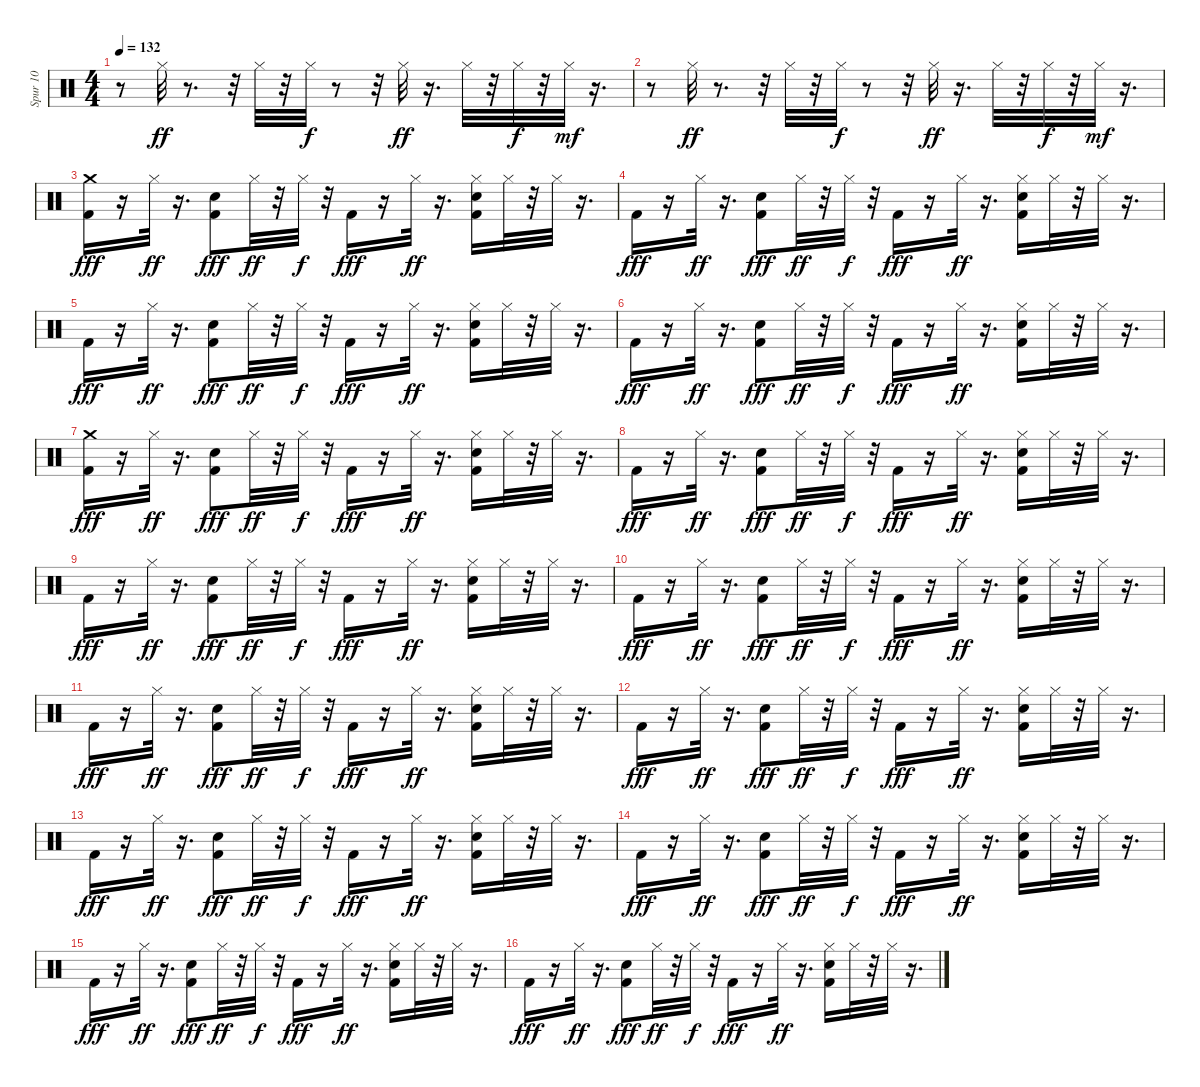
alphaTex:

\track ("Spur 10" "Spur 10") {instrument percussion}
\staff {score}
\articulation defaults
\ts (4 4)
\tempo 132
\clef neutral
\ks c
r.8{dy mf} "Hi-Hat (closed)".32{dy ff} r.8{d} r.32 "Hi-Hat (closed)".32 r.32 "Hi-Hat (closed)".32{dy f} r.8 r.32 "Hi-Hat (closed)".32{dy ff} r.16{d} "Hi-Hat (closed)".32 r.32 "Hi-Hat (closed)".32{dy f} r.32 "Hi-Hat (closed)".32{dy mf} r.16{d} |
r.8 "Hi-Hat (closed)".32{dy ff} r.8{d} r.32 "Hi-Hat (closed)".32 r.32 "Hi-Hat (closed)".32{dy f} r.8 r.32 "Hi-Hat (closed)".32{dy ff} r.16{d} "Hi-Hat (closed)".32 r.32 "Hi-Hat (closed)".32{dy f} r.32 "Hi-Hat (closed)".32{dy mf} r.16{d} |
("Crash medium (hit)" "Kick (hit) 2").16{dy fff} r.16 "Hi-Hat (closed)".32{dy ff} r.16{d} ("Snare (hit) 2" "Kick (hit) 2").8{dy fff} "Hi-Hat (closed)".32{dy ff} r.32 "Hi-Hat (closed)".32{dy f} r.32 "Kick (hit) 2".16{dy fff} r.16 "Hi-Hat (closed)".32{dy ff} r.16{d} ("Snare (hit) 2" "Kick (hit) 2" "Hi-Hat (closed)").16 "Hi-Hat (closed)".32 r.32 "Hi-Hat (closed)".32 r.16{d} |
"Kick (hit) 2".16{dy fff} r.16 "Hi-Hat (closed)".32{dy ff} r.16{d} ("Snare (hit) 2" "Kick (hit) 2").8{dy fff} "Hi-Hat (closed)".32{dy ff} r.32 "Hi-Hat (closed)".32{dy f} r.32 "Kick (hit) 2".16{dy fff} r.16 "Hi-Hat (closed)".32{dy ff} r.16{d} ("Snare (hit) 2" "Kick (hit) 2" "Hi-Hat (closed)").16 "Hi-Hat (closed)".32 r.32 "Hi-Hat (closed)".32 r.16{d} |
"Kick (hit) 2".16{dy fff} r.16 "Hi-Hat (closed)".32{dy ff} r.16{d} ("Snare (hit) 2" "Kick (hit) 2").8{dy fff} "Hi-Hat (closed)".32{dy ff} r.32 "Hi-Hat (closed)".32{dy f} r.32 "Kick (hit) 2".16{dy fff} r.16 "Hi-Hat (closed)".32{dy ff} r.16{d} ("Snare (hit) 2" "Kick (hit) 2" "Hi-Hat (closed)").16 "Hi-Hat (closed)".32 r.32 "Hi-Hat (closed)".32 r.16{d} |
"Kick (hit) 2".16{dy fff} r.16 "Hi-Hat (closed)".32{dy ff} r.16{d} ("Snare (hit) 2" "Kick (hit) 2").8{dy fff} "Hi-Hat (closed)".32{dy ff} r.32 "Hi-Hat (closed)".32{dy f} r.32 "Kick (hit) 2".16{dy fff} r.16 "Hi-Hat (closed)".32{dy ff} r.16{d} ("Snare (hit) 2" "Kick (hit) 2" "Hi-Hat (closed)").16 "Hi-Hat (closed)".32 r.32 "Hi-Hat (closed)".32 r.16{d} |
("Crash medium (hit)" "Kick (hit) 2").16{dy fff} r.16 "Hi-Hat (closed)".32{dy ff} r.16{d} ("Snare (hit) 2" "Kick (hit) 2").8{dy fff} "Hi-Hat (closed)".32{dy ff} r.32 "Hi-Hat (closed)".32{dy f} r.32 "Kick (hit) 2".16{dy fff} r.16 "Hi-Hat (closed)".32{dy ff} r.16{d} ("Snare (hit) 2" "Kick (hit) 2" "Hi-Hat (closed)").16 "Hi-Hat (closed)".32 r.32 "Hi-Hat (closed)".32 r.16{d} |
"Kick (hit) 2".16{dy fff} r.16 "Hi-Hat (closed)".32{dy ff} r.16{d} ("Snare (hit) 2" "Kick (hit) 2").8{dy fff} "Hi-Hat (closed)".32{dy ff} r.32 "Hi-Hat (closed)".32{dy f} r.32 "Kick (hit) 2".16{dy fff} r.16 "Hi-Hat (closed)".32{dy ff} r.16{d} ("Snare (hit) 2" "Kick (hit) 2" "Hi-Hat (closed)").16 "Hi-Hat (closed)".32 r.32 "Hi-Hat (closed)".32 r.16{d} |
"Kick (hit) 2".16{dy fff} r.16 "Hi-Hat (closed)".32{dy ff} r.16{d} ("Snare (hit) 2" "Kick (hit) 2").8{dy fff} "Hi-Hat (closed)".32{dy ff} r.32 "Hi-Hat (closed)".32{dy f} r.32 "Kick (hit) 2".16{dy fff} r.16 "Hi-Hat (closed)".32{dy ff} r.16{d} ("Snare (hit) 2" "Kick (hit) 2" "Hi-Hat (closed)").16 "Hi-Hat (closed)".32 r.32 "Hi-Hat (closed)".32 r.16{d} |
"Kick (hit) 2".16{dy fff} r.16 "Hi-Hat (closed)".32{dy ff} r.16{d} ("Snare (hit) 2" "Kick (hit) 2").8{dy fff} "Hi-Hat (closed)".32{dy ff} r.32 "Hi-Hat (closed)".32{dy f} r.32 "Kick (hit) 2".16{dy fff} r.16 "Hi-Hat (closed)".32{dy ff} r.16{d} ("Snare (hit) 2" "Kick (hit) 2" "Hi-Hat (closed)").16 "Hi-Hat (closed)".32 r.32 "Hi-Hat (closed)".32 r.16{d} |
"Kick (hit) 2".16{dy fff} r.16 "Hi-Hat (closed)".32{dy ff} r.16{d} ("Snare (hit) 2" "Kick (hit) 2").8{dy fff} "Hi-Hat (closed)".32{dy ff} r.32 "Hi-Hat (closed)".32{dy f} r.32 "Kick (hit) 2".16{dy fff} r.16 "Hi-Hat (closed)".32{dy ff} r.16{d} ("Snare (hit) 2" "Kick (hit) 2" "Hi-Hat (closed)").16 "Hi-Hat (closed)".32 r.32 "Hi-Hat (closed)".32 r.16{d} |
"Kick (hit) 2".16{dy fff} r.16 "Hi-Hat (closed)".32{dy ff} r.16{d} ("Snare (hit) 2" "Kick (hit) 2").8{dy fff} "Hi-Hat (closed)".32{dy ff} r.32 "Hi-Hat (closed)".32{dy f} r.32 "Kick (hit) 2".16{dy fff} r.16 "Hi-Hat (closed)".32{dy ff} r.16{d} ("Snare (hit) 2" "Kick (hit) 2" "Hi-Hat (closed)").16 "Hi-Hat (closed)".32 r.32 "Hi-Hat (closed)".32 r.16{d} |
"Kick (hit) 2".16{dy fff} r.16 "Hi-Hat (closed)".32{dy ff} r.16{d} ("Snare (hit) 2" "Kick (hit) 2").8{dy fff} "Hi-Hat (closed)".32{dy ff} r.32 "Hi-Hat (closed)".32{dy f} r.32 "Kick (hit) 2".16{dy fff} r.16 "Hi-Hat (closed)".32{dy ff} r.16{d} ("Snare (hit) 2" "Kick (hit) 2" "Hi-Hat (closed)").16 "Hi-Hat (closed)".32 r.32 "Hi-Hat (closed)".32 r.16{d} |
"Kick (hit) 2".16{dy fff} r.16 "Hi-Hat (closed)".32{dy ff} r.16{d} ("Snare (hit) 2" "Kick (hit) 2").8{dy fff} "Hi-Hat (closed)".32{dy ff} r.32 "Hi-Hat (closed)".32{dy f} r.32 "Kick (hit) 2".16{dy fff} r.16 "Hi-Hat (closed)".32{dy ff} r.16{d} ("Snare (hit) 2" "Kick (hit) 2" "Hi-Hat (closed)").16 "Hi-Hat (closed)".32 r.32 "Hi-Hat (closed)".32 r.16{d} |
"Kick (hit) 2".16{dy fff} r.16 "Hi-Hat (closed)".32{dy ff} r.16{d} ("Snare (hit) 2" "Kick (hit) 2").8{dy fff} "Hi-Hat (closed)".32{dy ff} r.32 "Hi-Hat (closed)".32{dy f} r.32 "Kick (hit) 2".16{dy fff} r.16 "Hi-Hat (closed)".32{dy ff} r.16{d} ("Snare (hit) 2" "Kick (hit) 2" "Hi-Hat (closed)").16 "Hi-Hat (closed)".32 r.32 "Hi-Hat (closed)".32 r.16{d} |
"Kick (hit) 2".16{dy fff} r.16 "Hi-Hat (closed)".32{dy ff} r.16{d} ("Snare (hit) 2" "Kick (hit) 2").8{dy fff} "Hi-Hat (closed)".32{dy ff} r.32 "Hi-Hat (closed)".32{dy f} r.32 "Kick (hit) 2".16{dy fff} r.16 "Hi-Hat (closed)".32{dy ff} r.16{d} ("Snare (hit) 2" "Kick (hit) 2" "Hi-Hat (closed)").16 "Hi-Hat (closed)".32 r.32 "Hi-Hat (closed)".32 r.16{d}
